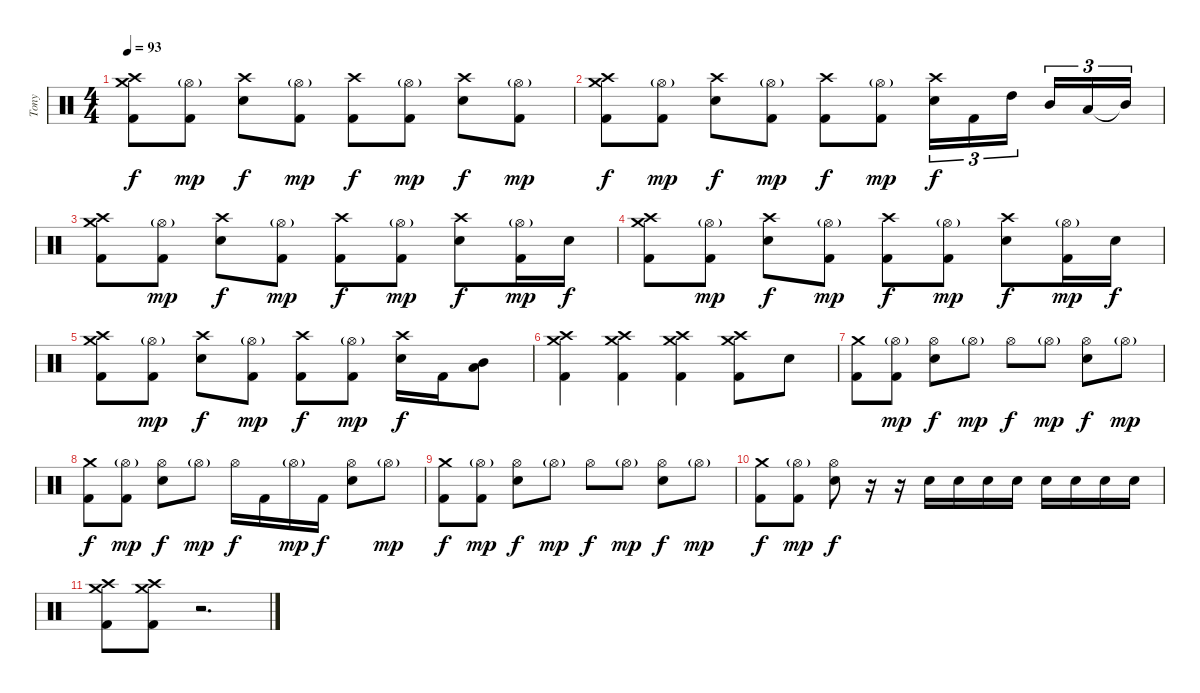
\track ("Tony" "Tony") {instrument percussion}
\staff {score}
\articulation defaults
\ts (4 4)
\tempo 93
\clef neutral
\ks c
("Crash high (hit)" "Crash medium (hit)" "Kick (hit) 2").8{dy f} ("Hi-Hat (open)"{g} "Kick (hit) 2").8{dy mp} ("Crash high (hit)" "Electric Snare (hit)").8{dy f} ("Hi-Hat (open)"{g} "Kick (hit) 2").8{dy mp} ("Crash high (hit)" "Kick (hit) 2").8{dy f} ("Hi-Hat (open)"{g} "Kick (hit) 2").8{dy mp} ("Crash high (hit)" "Electric Snare (hit)").8{dy f} ("Hi-Hat (open)"{g} "Kick (hit) 2").8{dy mp} |
("Crash high (hit)" "Crash medium (hit)" "Kick (hit) 2").8{dy f} ("Hi-Hat (open)"{g} "Kick (hit) 2").8{dy mp} ("Crash high (hit)" "Electric Snare (hit)").8{dy f} ("Hi-Hat (open)"{g} "Kick (hit) 2").8{dy mp} ("Crash high (hit)" "Kick (hit) 2").8{dy f} ("Hi-Hat (open)"{g} "Kick (hit) 2").8{dy mp} ("Crash high (hit)" "Electric Snare (hit)").16{tu (3 2) dy f} "Kick (hit) 2".16{tu (3 2)} "High Tom (hit)".16{tu (3 2) beam splitsecondary} "Mid Tom (hit)".16{tu (3 2)} "Low Tom (hit)".16{tu (3 2)} "Mid Tom (hit)"{t}.16{tu (3 2)} |
("Crash high (hit)" "Crash medium (hit)" "Kick (hit) 2").8 ("Hi-Hat (open)"{g} "Kick (hit) 2").8{dy mp} ("Crash high (hit)" "Electric Snare (hit)").8{dy f} ("Hi-Hat (open)"{g} "Kick (hit) 2").8{dy mp} ("Crash high (hit)" "Kick (hit) 2").8{dy f} ("Hi-Hat (open)"{g} "Kick (hit) 2").8{dy mp} ("Crash high (hit)" "Electric Snare (hit)").8{dy f} ("Hi-Hat (open)"{g} "Kick (hit) 2").16{dy mp} "Electric Snare (hit)".16{dy f} |
("Crash high (hit)" "Crash medium (hit)" "Kick (hit) 2").8 ("Hi-Hat (open)"{g} "Kick (hit) 2").8{dy mp} ("Crash high (hit)" "Electric Snare (hit)").8{dy f} ("Hi-Hat (open)"{g} "Kick (hit) 2").8{dy mp} ("Crash high (hit)" "Kick (hit) 2").8{dy f} ("Hi-Hat (open)"{g} "Kick (hit) 2").8{dy mp} ("Crash high (hit)" "Electric Snare (hit)").8{dy f} ("Hi-Hat (open)"{g} "Kick (hit) 2").16{dy mp} "Electric Snare (hit)".16{dy f} |
("Crash high (hit)" "Crash medium (hit)" "Kick (hit) 2").8 ("Hi-Hat (open)"{g} "Kick (hit) 2").8{dy mp} ("Crash high (hit)" "Electric Snare (hit)").8{dy f} ("Hi-Hat (open)"{g} "Kick (hit) 2").8{dy mp} ("Crash high (hit)" "Kick (hit) 2").8{dy f} ("Hi-Hat (open)"{g} "Kick (hit) 2").8{dy mp} ("Crash high (hit)" "Electric Snare (hit)").16{dy f} "Kick (hit) 2".16 ("Mid Tom (hit)" "Low Tom (hit)").8{bd 60} |
("Crash high (hit)" "Crash medium (hit)" "Kick (hit) 2").4 ("Crash high (hit)" "Crash medium (hit)" "Kick (hit) 2").4 ("Crash high (hit)" "Crash medium (hit)" "Kick (hit) 2").4 ("Crash high (hit)" "Crash medium (hit)" "Kick (hit) 2").8 "Electric Snare (hit)".8 |
("Crash medium (hit)" "Kick (hit) 2").8 ("Hi-Hat (open)"{g} "Kick (hit) 2").8{dy mp} ("Hi-Hat (open)" "Electric Snare (hit)").8{dy f} "Hi-Hat (open)"{g}.8{dy mp} "Hi-Hat (open)".8{dy f} "Hi-Hat (open)"{g}.8{dy mp} ("Hi-Hat (open)" "Electric Snare (hit)").8{dy f} "Hi-Hat (open)"{g}.8{dy mp} |
("Crash medium (hit)" "Kick (hit) 2").8{dy f} ("Hi-Hat (open)"{g} "Kick (hit) 2").8{dy mp} ("Hi-Hat (open)" "Electric Snare (hit)").8{dy f} "Hi-Hat (open)"{g}.8{dy mp} "Hi-Hat (open)".16{dy f} "Kick (hit) 2".16 "Hi-Hat (open)"{g}.16{dy mp} "Kick (hit) 2".16{dy f} ("Hi-Hat (open)" "Electric Snare (hit)").8 "Hi-Hat (open)"{g}.8{dy mp} |
("Crash medium (hit)" "Kick (hit) 2").8{dy f} ("Hi-Hat (open)"{g} "Kick (hit) 2").8{dy mp} ("Hi-Hat (open)" "Electric Snare (hit)").8{dy f} "Hi-Hat (open)"{g}.8{dy mp} "Hi-Hat (open)".8{dy f} "Hi-Hat (open)"{g}.8{dy mp} ("Hi-Hat (open)" "Electric Snare (hit)").8{dy f} "Hi-Hat (open)"{g}.8{dy mp} |
("Crash medium (hit)" "Kick (hit) 2").8{dy f} ("Hi-Hat (open)"{g} "Kick (hit) 2").8{dy mp} ("Hi-Hat (open)" "Electric Snare (hit)").8{dy f} r.16 r.16 "Electric Snare (hit)".16 "Electric Snare (hit)".16 "Electric Snare (hit)".16 "Electric Snare (hit)".16 "Electric Snare (hit)".16 "Electric Snare (hit)".16 "Electric Snare (hit)".16 "Electric Snare (hit)".16 |
("Crash high (hit)" "Crash medium (hit)" "Kick (hit) 2").8 ("Crash high (hit)" "Crash medium (hit)" "Kick (hit) 2").8 r.2{d}
